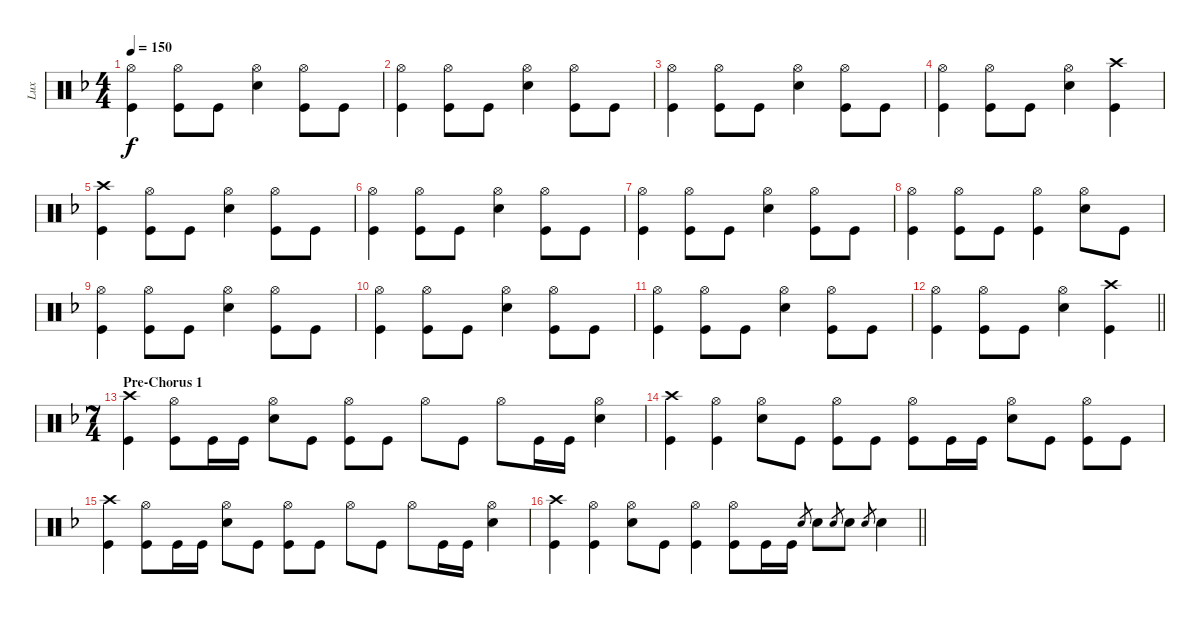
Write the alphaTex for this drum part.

\track ("Lux" "Lux") {instrument percussion}
\staff {score}
\articulation defaults
\ts (4 4)
\tempo 150
\clef neutral
\ks dminor
("Hi-Hat (open)" "Kick (hit)").4{dy f} ("Hi-Hat (open)" "Kick (hit)").8 "Kick (hit)".8 ("Hi-Hat (open)" "Snare (hit) 2").4 ("Hi-Hat (open)" "Kick (hit)").8 "Kick (hit)".8 |
("Hi-Hat (open)" "Kick (hit)").4 ("Hi-Hat (open)" "Kick (hit)").8 "Kick (hit)".8 ("Hi-Hat (open)" "Snare (hit) 2").4 ("Hi-Hat (open)" "Kick (hit)").8 "Kick (hit)".8 |
("Hi-Hat (open)" "Kick (hit)").4 ("Hi-Hat (open)" "Kick (hit)").8 "Kick (hit)".8 ("Hi-Hat (open)" "Snare (hit) 2").4 ("Hi-Hat (open)" "Kick (hit)").8 "Kick (hit)".8 |
("Hi-Hat (open)" "Kick (hit)").4 ("Hi-Hat (open)" "Kick (hit)").8 "Kick (hit)".8 ("Hi-Hat (open)" "Snare (hit) 2").4 ("Crash high (hit)" "Kick (hit)").4 |
("Crash high (hit)" "Kick (hit)").4 ("Hi-Hat (open)" "Kick (hit)").8 "Kick (hit)".8 ("Hi-Hat (open)" "Snare (hit) 2").4 ("Hi-Hat (open)" "Kick (hit)").8 "Kick (hit)".8 |
("Hi-Hat (open)" "Kick (hit)").4 ("Hi-Hat (open)" "Kick (hit)").8 "Kick (hit)".8 ("Hi-Hat (open)" "Snare (hit) 2").4 ("Hi-Hat (open)" "Kick (hit)").8 "Kick (hit)".8 |
("Hi-Hat (open)" "Kick (hit)").4 ("Hi-Hat (open)" "Kick (hit)").8 "Kick (hit)".8 ("Hi-Hat (open)" "Snare (hit) 2").4 ("Hi-Hat (open)" "Kick (hit)").8 "Kick (hit)".8 |
("Hi-Hat (open)" "Kick (hit)").4 ("Hi-Hat (open)" "Kick (hit)").8 "Kick (hit)".8 ("Hi-Hat (open)" "Kick (hit)").4 ("Hi-Hat (open)" "Snare (hit) 2").8 "Kick (hit)".8 |
("Hi-Hat (open)" "Kick (hit)").4 ("Hi-Hat (open)" "Kick (hit)").8 "Kick (hit)".8 ("Hi-Hat (open)" "Snare (hit) 2").4 ("Hi-Hat (open)" "Kick (hit)").8 "Kick (hit)".8 |
("Hi-Hat (open)" "Kick (hit)").4 ("Hi-Hat (open)" "Kick (hit)").8 "Kick (hit)".8 ("Hi-Hat (open)" "Snare (hit) 2").4 ("Hi-Hat (open)" "Kick (hit)").8 "Kick (hit)".8 |
("Hi-Hat (open)" "Kick (hit)").4 ("Hi-Hat (open)" "Kick (hit)").8 "Kick (hit)".8 ("Hi-Hat (open)" "Snare (hit) 2").4 ("Hi-Hat (open)" "Kick (hit)").8 "Kick (hit)".8 |
\barLineRight lightlight
("Hi-Hat (open)" "Kick (hit)").4 ("Hi-Hat (open)" "Kick (hit)").8 "Kick (hit)".8 ("Hi-Hat (open)" "Snare (hit) 2").4 ("Crash high (hit)" "Kick (hit)").4 |
\ts (7 4)
\section ("" "Pre-Chorus 1")
("Crash high (hit)" "Kick (hit)").4 ("Hi-Hat (open)" "Kick (hit)").8 "Kick (hit)".16 "Kick (hit)".16 ("Hi-Hat (open)" "Snare (hit) 2").8 "Kick (hit)".8 ("Hi-Hat (open)" "Kick (hit)").8 "Kick (hit)".8 "Hi-Hat (open)".8 "Kick (hit)".8 "Hi-Hat (open)".8 "Kick (hit)".16 "Kick (hit)".16 ("Hi-Hat (open)" "Snare (hit) 2").4 |
("Crash high (hit)" "Kick (hit)").4 ("Hi-Hat (open)" "Kick (hit)").4 ("Hi-Hat (open)" "Snare (hit) 2").8 "Kick (hit)".8 ("Hi-Hat (open)" "Kick (hit)").8 "Kick (hit)".8 ("Hi-Hat (open)" "Kick (hit)").8 "Kick (hit)".16 "Kick (hit)".16 ("Hi-Hat (open)" "Snare (hit) 2").8 "Kick (hit)".8 ("Hi-Hat (open)" "Kick (hit)").8 "Kick (hit)".8 |
("Crash high (hit)" "Kick (hit)").4 ("Hi-Hat (open)" "Kick (hit)").8 "Kick (hit)".16 "Kick (hit)".16 ("Hi-Hat (open)" "Snare (hit) 2").8 "Kick (hit)".8 ("Hi-Hat (open)" "Kick (hit)").8 "Kick (hit)".8 "Hi-Hat (open)".8 "Kick (hit)".8 "Hi-Hat (open)".8 "Kick (hit)".16 "Kick (hit)".16 ("Hi-Hat (open)" "Snare (hit) 2").4 |
\barLineRight lightlight
("Crash high (hit)" "Kick (hit)").4 ("Hi-Hat (open)" "Kick (hit)").4 ("Hi-Hat (open)" "Snare (hit) 2").8 "Kick (hit)".8 ("Hi-Hat (open)" "Kick (hit)").4 ("Hi-Hat (open)" "Kick (hit)").8 "Kick (hit)".16 "Kick (hit)".16 "Snare (hit) 2".8{gr} "Snare (hit) 2".8 "Snare (hit) 2".8{gr} "Snare (hit) 2".8 "Snare (hit) 2".8{gr} "Snare (hit) 2".4
